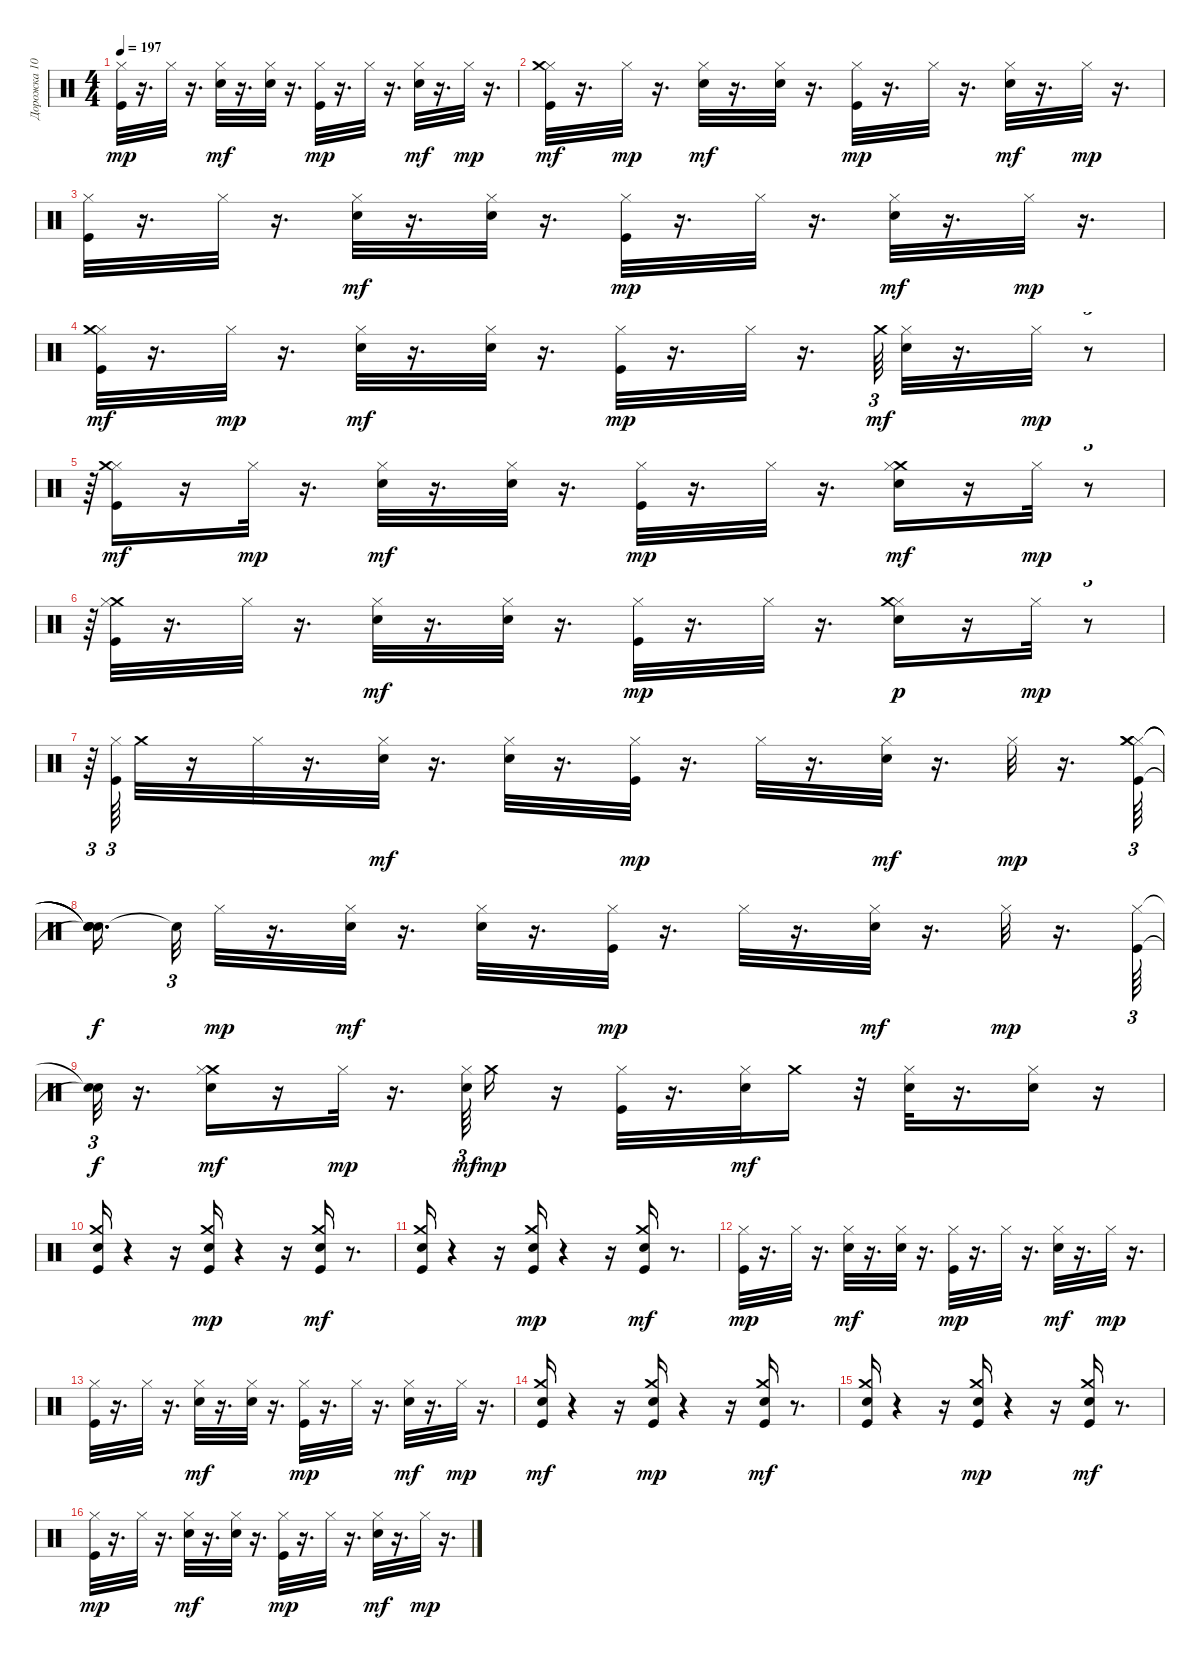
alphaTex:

\track ("Дорожка 10" "Дорожка 10") {instrument percussion}
\staff {score}
\articulation defaults
\ts (4 4)
\tempo 197
\clef neutral
\ks c
("Hi-Hat (closed)" "Kick (hit)").32{dy mp} r.16{d} "Hi-Hat (closed)".32 r.16{d} ("Hi-Hat (closed)" "Electric Snare (hit)").32{dy mf} r.16{d} ("Hi-Hat (closed)" "Electric Snare (hit)").32 r.16{d} ("Hi-Hat (closed)" "Kick (hit)").32{dy mp} r.16{d} "Hi-Hat (closed)".32 r.16{d} ("Hi-Hat (closed)" "Electric Snare (hit)").32{dy mf} r.16{d} "Hi-Hat (closed)".32{dy mp} r.16{d} |
("Hi-Hat (closed)" "Kick (hit)" "Crash medium (hit)").32{dy mf} r.16{d} "Hi-Hat (closed)".32{dy mp} r.16{d} ("Hi-Hat (closed)" "Electric Snare (hit)").32{dy mf} r.16{d} ("Hi-Hat (closed)" "Electric Snare (hit)").32 r.16{d} ("Hi-Hat (closed)" "Kick (hit)").32{dy mp} r.16{d} "Hi-Hat (closed)".32 r.16{d} ("Hi-Hat (closed)" "Electric Snare (hit)").32{dy mf} r.16{d} "Hi-Hat (closed)".32{dy mp} r.16{d} |
("Hi-Hat (closed)" "Kick (hit)").32 r.16{d} "Hi-Hat (closed)".32 r.16{d} ("Hi-Hat (closed)" "Electric Snare (hit)").32{dy mf} r.16{d} ("Hi-Hat (closed)" "Electric Snare (hit)").32 r.16{d} ("Hi-Hat (closed)" "Kick (hit)").32{dy mp} r.16{d} "Hi-Hat (closed)".32 r.16{d} ("Hi-Hat (closed)" "Electric Snare (hit)").32{dy mf} r.16{d} "Hi-Hat (closed)".32{dy mp} r.16{d} |
("Hi-Hat (closed)" "Kick (hit)" "Crash medium (hit)").32{dy mf} r.16{d} "Hi-Hat (closed)".32{dy mp} r.16{d} ("Hi-Hat (closed)" "Electric Snare (hit)").32{dy mf} r.16{d} ("Hi-Hat (closed)" "Electric Snare (hit)").32 r.16{d} ("Hi-Hat (closed)" "Kick (hit)").32{dy mp} r.16{d} "Hi-Hat (closed)".32 r.16{d} "Crash medium (hit)".64{tu (3 2) dy mf} ("Hi-Hat (closed)" "Electric Snare (hit)").32 r.16{d} "Hi-Hat (closed)".32{dy mp} r.8{tu (3 2)} |
r.64{tu (3 2)} ("Hi-Hat (closed)" "Kick (hit)" "Crash medium (hit)").16{dy mf} r.16 "Hi-Hat (closed)".32{dy mp} r.16{d} ("Hi-Hat (closed)" "Electric Snare (hit)").32{dy mf} r.16{d} ("Hi-Hat (closed)" "Electric Snare (hit)").32 r.16{d} ("Hi-Hat (closed)" "Kick (hit)").32{dy mp} r.16{d} "Hi-Hat (closed)".32 r.16{d} ("Crash medium (hit)" "Hi-Hat (closed)" "Electric Snare (hit)").16{dy mf} r.16 "Hi-Hat (closed)".32{dy mp} r.8{tu (3 2)} |
r.64{tu (3 2)} ("Crash medium (hit)" "Hi-Hat (closed)" "Kick (hit)").32 r.16{d} "Hi-Hat (closed)".32 r.16{d} ("Hi-Hat (closed)" "Electric Snare (hit)").32{dy mf} r.16{d} ("Hi-Hat (closed)" "Electric Snare (hit)").32 r.16{d} ("Hi-Hat (closed)" "Kick (hit)").32{dy mp} r.16{d} "Hi-Hat (closed)".32 r.16{d} ("Hi-Hat (closed)" "Electric Snare (hit)" "Crash medium (hit)").16{dy p} r.16 "Hi-Hat (closed)".32{dy mp} r.8{tu (3 2)} |
r.64{tu (3 2)} ("Hi-Hat (closed)" "Kick (hit)").64{tu (3 2)} "Crash medium (hit)".32 r.16 "Hi-Hat (closed)".32 r.16{d} ("Hi-Hat (closed)" "Electric Snare (hit)").32{dy mf} r.16{d} ("Hi-Hat (closed)" "Electric Snare (hit)").32 r.16{d} ("Hi-Hat (closed)" "Kick (hit)").32{dy mp} r.16{d} "Hi-Hat (closed)".32 r.16{d} ("Hi-Hat (closed)" "Electric Snare (hit)").32{dy mf} r.16{d} "Hi-Hat (closed)".32{dy mp} r.16{d} ("Hi-Hat (closed)" "Kick (hit)" "Crash medium (hit)" "Crash medium (hit)").64{tu (3 2)} |
("Snare (hit)"{t} "Snare (hit)"{t} "Snare (hit)"{t} "Snare (hit)"{t}).16{d dy f beam splitsecondary} "Snare (hit)"{t}.32{tu (3 2)} "Hi-Hat (closed)".32{dy mp} r.16{d} ("Hi-Hat (closed)" "Electric Snare (hit)").32{dy mf} r.16{d} ("Hi-Hat (closed)" "Electric Snare (hit)").32 r.16{d} ("Hi-Hat (closed)" "Kick (hit)").32{dy mp} r.16{d} "Hi-Hat (closed)".32 r.16{d} ("Hi-Hat (closed)" "Electric Snare (hit)").32{dy mf} r.16{d} "Hi-Hat (closed)".32{dy mp} r.16{d} ("Hi-Hat (closed)" "Kick (hit)").64{tu (3 2)} |
("Snare (hit)"{t} "Snare (hit)"{t}).32{tu (3 2) dy f} r.16{d} ("Crash medium (hit)" "Hi-Hat (closed)" "Electric Snare (hit)").16{dy mf} r.16 "Hi-Hat (closed)".32{dy mp} r.16{d} ("Hi-Hat (closed)" "Electric Snare (hit)").64{tu (3 2) dy mf} "Crash medium (hit)".16{dy mp} r.16 ("Hi-Hat (closed)" "Kick (hit)").32 r.16{d} ("Hi-Hat (closed)" "Electric Snare (hit)").32{dy mf} "Crash medium (hit)".16 r.32 ("Hi-Hat (closed)" "Electric Snare (hit)").32 r.16{d} ("Hi-Hat (closed)" "Electric Snare (hit)").16 r.16 |
("Kick (hit)" "Crash medium (hit)" "Snare (hit) 2").16 r.4 r.16 ("Crash medium (hit)" "Kick (hit)" "Snare (hit) 2").16{dy mp} r.4 r.16 ("Crash medium (hit)" "Snare (hit) 2" "Kick (hit)").16{dy mf} r.8{d} |
("Crash medium (hit)" "Snare (hit) 2" "Kick (hit)").16 r.4 r.16 ("Crash medium (hit)" "Kick (hit)" "Snare (hit) 2").16{dy mp} r.4 r.16 ("Crash medium (hit)" "Kick (hit)" "Snare (hit) 2").16{dy mf} r.8{d} |
("Hi-Hat (closed)" "Kick (hit)").32{dy mp} r.16{d} "Hi-Hat (closed)".32 r.16{d} ("Hi-Hat (closed)" "Electric Snare (hit)").32{dy mf} r.16{d} ("Hi-Hat (closed)" "Electric Snare (hit)").32 r.16{d} ("Hi-Hat (closed)" "Kick (hit)").32{dy mp} r.16{d} "Hi-Hat (closed)".32 r.16{d} ("Hi-Hat (closed)" "Electric Snare (hit)").32{dy mf} r.16{d} "Hi-Hat (closed)".32{dy mp} r.16{d} |
("Hi-Hat (closed)" "Kick (hit)").32 r.16{d} "Hi-Hat (closed)".32 r.16{d} ("Hi-Hat (closed)" "Electric Snare (hit)").32{dy mf} r.16{d} ("Hi-Hat (closed)" "Electric Snare (hit)").32 r.16{d} ("Hi-Hat (closed)" "Kick (hit)").32{dy mp} r.16{d} "Hi-Hat (closed)".32 r.16{d} ("Hi-Hat (closed)" "Electric Snare (hit)").32{dy mf} r.16{d} "Hi-Hat (closed)".32{dy mp} r.16{d} |
("Kick (hit)" "Crash medium (hit)" "Snare (hit) 2").16{dy mf} r.4 r.16 ("Crash medium (hit)" "Kick (hit)" "Snare (hit) 2").16{dy mp} r.4 r.16 ("Crash medium (hit)" "Snare (hit) 2" "Kick (hit)").16{dy mf} r.8{d} |
("Crash medium (hit)" "Snare (hit) 2" "Kick (hit)").16 r.4 r.16 ("Crash medium (hit)" "Kick (hit)" "Snare (hit) 2").16{dy mp} r.4 r.16 ("Crash medium (hit)" "Kick (hit)" "Snare (hit) 2").16{dy mf} r.8{d} |
("Hi-Hat (closed)" "Kick (hit)").32{dy mp} r.16{d} "Hi-Hat (closed)".32 r.16{d} ("Hi-Hat (closed)" "Electric Snare (hit)").32{dy mf} r.16{d} ("Hi-Hat (closed)" "Electric Snare (hit)").32 r.16{d} ("Hi-Hat (closed)" "Kick (hit)").32{dy mp} r.16{d} "Hi-Hat (closed)".32 r.16{d} ("Hi-Hat (closed)" "Electric Snare (hit)").32{dy mf} r.16{d} "Hi-Hat (closed)".32{dy mp} r.16{d}
